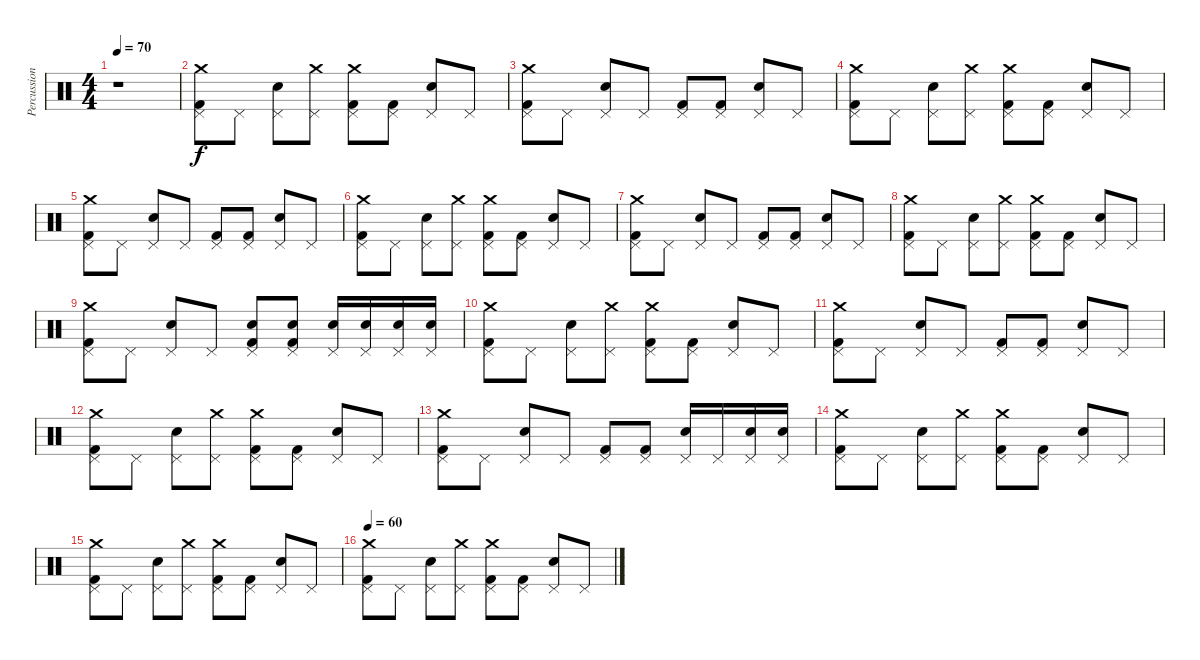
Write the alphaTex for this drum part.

\track ("Percussion" "Percussion") {instrument percussion}
\staff {score}
\articulation defaults
\ts (4 4)
\tempo 70
\clef neutral
\ks c
r.1{dy f} |
("Kick (hit) 2" "Pedal Hi-Hat (hit)" "Crash medium (hit)").8 "Pedal Hi-Hat (hit)".8 ("Pedal Hi-Hat (hit)" "Electric Snare (hit)").8 ("Pedal Hi-Hat (hit)" "Crash medium (hit)").8 ("Kick (hit) 2" "Pedal Hi-Hat (hit)" "Crash medium (hit)").8 ("Kick (hit) 2" "Pedal Hi-Hat (hit)").8 ("Pedal Hi-Hat (hit)" "Electric Snare (hit)").8 "Pedal Hi-Hat (hit)".8 |
("Kick (hit) 2" "Pedal Hi-Hat (hit)" "Crash medium (hit)").8 "Pedal Hi-Hat (hit)".8 ("Pedal Hi-Hat (hit)" "Electric Snare (hit)").8 "Pedal Hi-Hat (hit)".8 ("Kick (hit) 2" "Pedal Hi-Hat (hit)").8 ("Kick (hit) 2" "Pedal Hi-Hat (hit)").8 ("Pedal Hi-Hat (hit)" "Electric Snare (hit)").8 "Pedal Hi-Hat (hit)".8 |
("Kick (hit) 2" "Pedal Hi-Hat (hit)" "Crash medium (hit)").8 "Pedal Hi-Hat (hit)".8 ("Pedal Hi-Hat (hit)" "Electric Snare (hit)").8 ("Pedal Hi-Hat (hit)" "Crash medium (hit)").8 ("Kick (hit) 2" "Pedal Hi-Hat (hit)" "Crash medium (hit)").8 ("Kick (hit) 2" "Pedal Hi-Hat (hit)").8 ("Pedal Hi-Hat (hit)" "Electric Snare (hit)").8 "Pedal Hi-Hat (hit)".8 |
("Kick (hit) 2" "Pedal Hi-Hat (hit)" "Crash medium (hit)").8 "Pedal Hi-Hat (hit)".8 ("Pedal Hi-Hat (hit)" "Electric Snare (hit)").8 "Pedal Hi-Hat (hit)".8 ("Kick (hit) 2" "Pedal Hi-Hat (hit)").8 ("Kick (hit) 2" "Pedal Hi-Hat (hit)").8 ("Pedal Hi-Hat (hit)" "Electric Snare (hit)").8 "Pedal Hi-Hat (hit)".8 |
("Kick (hit) 2" "Pedal Hi-Hat (hit)" "Crash medium (hit)").8 "Pedal Hi-Hat (hit)".8 ("Pedal Hi-Hat (hit)" "Electric Snare (hit)").8 ("Pedal Hi-Hat (hit)" "Crash medium (hit)").8 ("Kick (hit) 2" "Pedal Hi-Hat (hit)" "Crash medium (hit)").8 ("Kick (hit) 2" "Pedal Hi-Hat (hit)").8 ("Pedal Hi-Hat (hit)" "Electric Snare (hit)").8 "Pedal Hi-Hat (hit)".8 |
("Kick (hit) 2" "Pedal Hi-Hat (hit)" "Crash medium (hit)").8 "Pedal Hi-Hat (hit)".8 ("Pedal Hi-Hat (hit)" "Electric Snare (hit)").8 "Pedal Hi-Hat (hit)".8 ("Kick (hit) 2" "Pedal Hi-Hat (hit)").8 ("Kick (hit) 2" "Pedal Hi-Hat (hit)").8 ("Pedal Hi-Hat (hit)" "Electric Snare (hit)").8 "Pedal Hi-Hat (hit)".8 |
("Kick (hit) 2" "Pedal Hi-Hat (hit)" "Crash medium (hit)").8 "Pedal Hi-Hat (hit)".8 ("Pedal Hi-Hat (hit)" "Electric Snare (hit)").8 ("Pedal Hi-Hat (hit)" "Crash medium (hit)").8 ("Kick (hit) 2" "Pedal Hi-Hat (hit)" "Crash medium (hit)").8 ("Kick (hit) 2" "Pedal Hi-Hat (hit)").8 ("Pedal Hi-Hat (hit)" "Electric Snare (hit)").8 "Pedal Hi-Hat (hit)".8 |
("Kick (hit) 2" "Pedal Hi-Hat (hit)" "Crash medium (hit)").8 "Pedal Hi-Hat (hit)".8 ("Pedal Hi-Hat (hit)" "Electric Snare (hit)").8 "Pedal Hi-Hat (hit)".8 ("Kick (hit) 2" "Pedal Hi-Hat (hit)" "Electric Snare (hit)").8 ("Kick (hit) 2" "Pedal Hi-Hat (hit)" "Electric Snare (hit)").8 ("Pedal Hi-Hat (hit)" "Electric Snare (hit)").16 ("Pedal Hi-Hat (hit)" "Electric Snare (hit)").16 ("Pedal Hi-Hat (hit)" "Electric Snare (hit)").16 ("Pedal Hi-Hat (hit)" "Electric Snare (hit)").16 |
("Kick (hit) 2" "Pedal Hi-Hat (hit)" "Crash medium (hit)").8 "Pedal Hi-Hat (hit)".8 ("Pedal Hi-Hat (hit)" "Electric Snare (hit)").8 ("Pedal Hi-Hat (hit)" "Crash medium (hit)").8 ("Kick (hit) 2" "Pedal Hi-Hat (hit)" "Crash medium (hit)").8 ("Kick (hit) 2" "Pedal Hi-Hat (hit)").8 ("Pedal Hi-Hat (hit)" "Electric Snare (hit)").8 "Pedal Hi-Hat (hit)".8 |
("Kick (hit) 2" "Pedal Hi-Hat (hit)" "Crash medium (hit)").8 "Pedal Hi-Hat (hit)".8 ("Pedal Hi-Hat (hit)" "Electric Snare (hit)").8 "Pedal Hi-Hat (hit)".8 ("Kick (hit) 2" "Pedal Hi-Hat (hit)").8 ("Kick (hit) 2" "Pedal Hi-Hat (hit)").8 ("Pedal Hi-Hat (hit)" "Electric Snare (hit)").8 "Pedal Hi-Hat (hit)".8 |
("Kick (hit) 2" "Pedal Hi-Hat (hit)" "Crash medium (hit)").8 "Pedal Hi-Hat (hit)".8 ("Pedal Hi-Hat (hit)" "Electric Snare (hit)").8 ("Pedal Hi-Hat (hit)" "Crash medium (hit)").8 ("Kick (hit) 2" "Pedal Hi-Hat (hit)" "Crash medium (hit)").8 ("Kick (hit) 2" "Pedal Hi-Hat (hit)").8 ("Pedal Hi-Hat (hit)" "Electric Snare (hit)").8 "Pedal Hi-Hat (hit)".8 |
("Kick (hit) 2" "Pedal Hi-Hat (hit)" "Crash medium (hit)").8 "Pedal Hi-Hat (hit)".8 ("Pedal Hi-Hat (hit)" "Electric Snare (hit)").8 "Pedal Hi-Hat (hit)".8 ("Kick (hit) 2" "Pedal Hi-Hat (hit)").8 ("Kick (hit) 2" "Pedal Hi-Hat (hit)").8 ("Pedal Hi-Hat (hit)" "Electric Snare (hit)").16 "Pedal Hi-Hat (hit)".16 ("Pedal Hi-Hat (hit)" "Electric Snare (hit)").16 ("Pedal Hi-Hat (hit)" "Electric Snare (hit)").16 |
("Kick (hit) 2" "Pedal Hi-Hat (hit)" "Crash medium (hit)").8 "Pedal Hi-Hat (hit)".8 ("Pedal Hi-Hat (hit)" "Electric Snare (hit)").8 ("Pedal Hi-Hat (hit)" "Crash medium (hit)").8 ("Kick (hit) 2" "Pedal Hi-Hat (hit)" "Crash medium (hit)").8 ("Kick (hit) 2" "Pedal Hi-Hat (hit)").8 ("Pedal Hi-Hat (hit)" "Electric Snare (hit)").8 "Pedal Hi-Hat (hit)".8 |
("Kick (hit) 2" "Pedal Hi-Hat (hit)" "Crash medium (hit)").8 "Pedal Hi-Hat (hit)".8 ("Pedal Hi-Hat (hit)" "Electric Snare (hit)").8 ("Pedal Hi-Hat (hit)" "Crash medium (hit)").8 ("Kick (hit) 2" "Pedal Hi-Hat (hit)" "Crash medium (hit)").8 ("Kick (hit) 2" "Pedal Hi-Hat (hit)").8 ("Pedal Hi-Hat (hit)" "Electric Snare (hit)").8 "Pedal Hi-Hat (hit)".8 |
\tempo 60
("Kick (hit) 2" "Pedal Hi-Hat (hit)" "Crash medium (hit)").8 "Pedal Hi-Hat (hit)".8 ("Pedal Hi-Hat (hit)" "Electric Snare (hit)").8 ("Pedal Hi-Hat (hit)" "Crash medium (hit)").8 ("Kick (hit) 2" "Pedal Hi-Hat (hit)" "Crash medium (hit)").8 ("Kick (hit) 2" "Pedal Hi-Hat (hit)").8 ("Pedal Hi-Hat (hit)" "Electric Snare (hit)").8 "Pedal Hi-Hat (hit)".8
